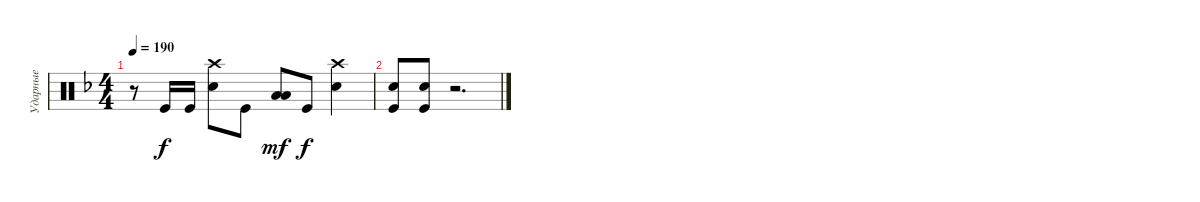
\track ("Ударные" "Ударные") {instrument percussion}
\staff {score}
\articulation defaults
\ts (4 4)
\tempo 190
\clef neutral
\ks dminor
r.8{dy f} "Kick (hit)".16 "Kick (hit)".16 ("Snare (hit) 2" "Crash high (hit)").8 "Kick (hit)".8 ("Low Tom (hit)" "Low Tom (hit)").8{bd 240 dy mf} "Kick (hit)".8{dy f} ("Snare (hit) 2" "Crash high (hit)").4 |
("Snare (hit) 2" "Kick (hit)").8 ("Snare (hit) 2" "Kick (hit)").8 r.2{d}
